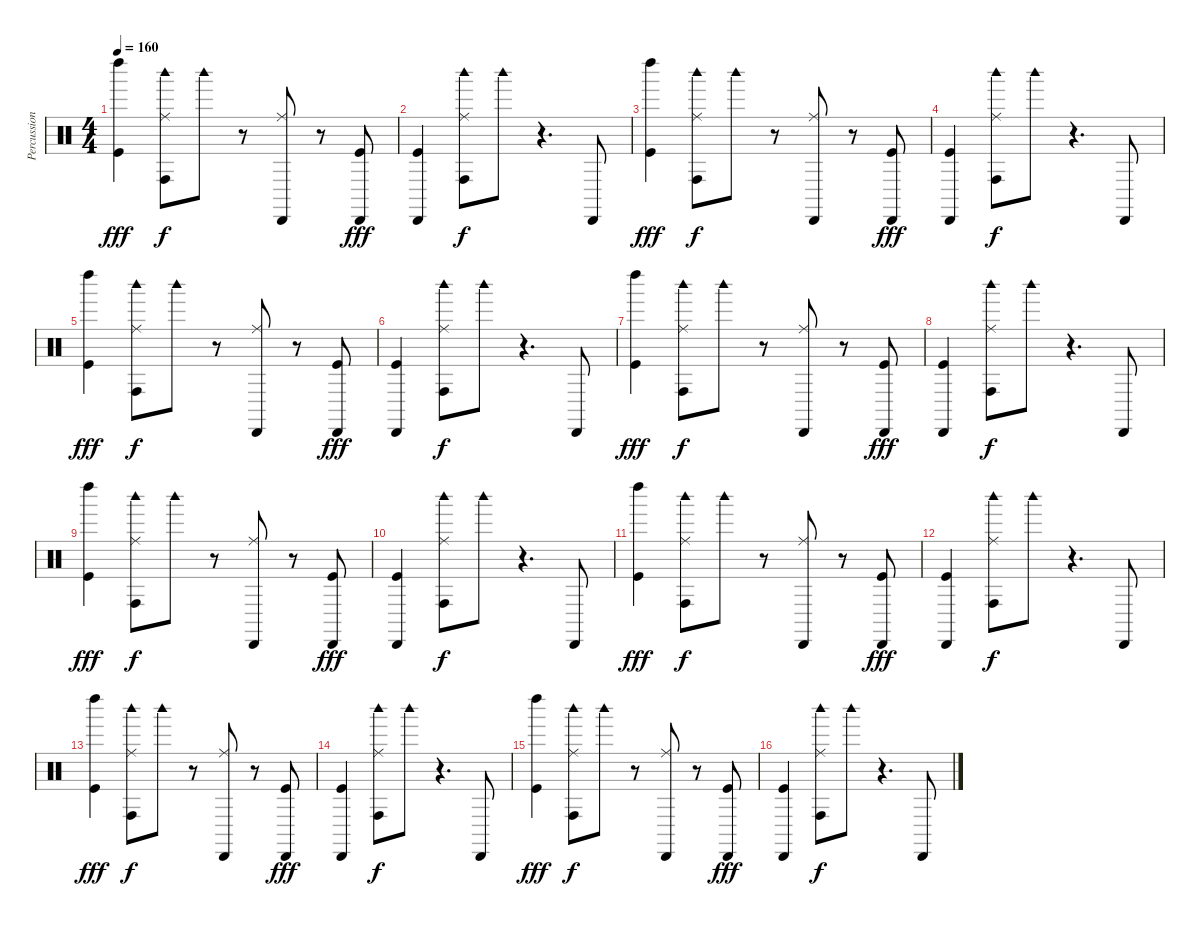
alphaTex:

\track ("Percussion" "Percussion") {instrument percussion}
\staff {score}
\articulation defaults
\ts (4 4)
\tempo 160
\clef neutral
\ks c
("Left Maraca (hit)" "Kick (hit)").4{dy fff} ("Conga high (hit)" "Ride (middle)" "Woodblock high (hit)").8{dy f} "Woodblock high (hit)".8 r.8 ("Cabasa (hit)" "Ride (middle)").8 r.8 ("Cabasa (hit)" "Kick (hit)").8{dy fff} |
("Cabasa (hit)" "Kick (hit)").4 ("Conga high (hit)" "Ride (middle)" "Woodblock high (hit)").8{dy f} "Woodblock high (hit)".8 r.4{d} "Cabasa (hit)".8 |
("Left Maraca (hit)" "Kick (hit)").4{dy fff} ("Conga high (hit)" "Ride (middle)" "Woodblock high (hit)").8{dy f} "Woodblock high (hit)".8 r.8 ("Cabasa (hit)" "Ride (middle)").8 r.8 ("Cabasa (hit)" "Kick (hit)").8{dy fff} |
("Cabasa (hit)" "Kick (hit)").4 ("Conga high (hit)" "Ride (middle)" "Woodblock high (hit)").8{dy f} "Woodblock high (hit)".8 r.4{d} "Cabasa (hit)".8 |
("Left Maraca (hit)" "Kick (hit)").4{dy fff} ("Conga high (hit)" "Ride (middle)" "Woodblock high (hit)").8{dy f} "Woodblock high (hit)".8 r.8 ("Cabasa (hit)" "Ride (middle)").8 r.8 ("Cabasa (hit)" "Kick (hit)").8{dy fff} |
("Cabasa (hit)" "Kick (hit)").4 ("Conga high (hit)" "Ride (middle)" "Woodblock high (hit)").8{dy f} "Woodblock high (hit)".8 r.4{d} "Cabasa (hit)".8 |
("Left Maraca (hit)" "Kick (hit)").4{dy fff} ("Conga high (hit)" "Ride (middle)" "Woodblock high (hit)").8{dy f} "Woodblock high (hit)".8 r.8 ("Cabasa (hit)" "Ride (middle)").8 r.8 ("Cabasa (hit)" "Kick (hit)").8{dy fff} |
("Cabasa (hit)" "Kick (hit)").4 ("Conga high (hit)" "Ride (middle)" "Woodblock high (hit)").8{dy f} "Woodblock high (hit)".8 r.4{d} "Cabasa (hit)".8 |
("Left Maraca (hit)" "Kick (hit)").4{dy fff} ("Conga high (hit)" "Ride (middle)" "Woodblock high (hit)").8{dy f} "Woodblock high (hit)".8 r.8 ("Cabasa (hit)" "Ride (middle)").8 r.8 ("Cabasa (hit)" "Kick (hit)").8{dy fff} |
("Cabasa (hit)" "Kick (hit)").4 ("Conga high (hit)" "Ride (middle)" "Woodblock high (hit)").8{dy f} "Woodblock high (hit)".8 r.4{d} "Cabasa (hit)".8 |
("Left Maraca (hit)" "Kick (hit)").4{dy fff} ("Conga high (hit)" "Ride (middle)" "Woodblock high (hit)").8{dy f} "Woodblock high (hit)".8 r.8 ("Cabasa (hit)" "Ride (middle)").8 r.8 ("Cabasa (hit)" "Kick (hit)").8{dy fff} |
("Cabasa (hit)" "Kick (hit)").4 ("Conga high (hit)" "Ride (middle)" "Woodblock high (hit)").8{dy f} "Woodblock high (hit)".8 r.4{d} "Cabasa (hit)".8 |
("Left Maraca (hit)" "Kick (hit)").4{dy fff} ("Conga high (hit)" "Ride (middle)" "Woodblock high (hit)").8{dy f} "Woodblock high (hit)".8 r.8 ("Cabasa (hit)" "Ride (middle)").8 r.8 ("Cabasa (hit)" "Kick (hit)").8{dy fff} |
("Cabasa (hit)" "Kick (hit)").4 ("Conga high (hit)" "Ride (middle)" "Woodblock high (hit)").8{dy f} "Woodblock high (hit)".8 r.4{d} "Cabasa (hit)".8 |
("Left Maraca (hit)" "Kick (hit)").4{dy fff} ("Conga high (hit)" "Ride (middle)" "Woodblock high (hit)").8{dy f} "Woodblock high (hit)".8 r.8 ("Cabasa (hit)" "Ride (middle)").8 r.8 ("Cabasa (hit)" "Kick (hit)").8{dy fff} |
("Cabasa (hit)" "Kick (hit)").4 ("Conga high (hit)" "Ride (middle)" "Woodblock high (hit)").8{dy f} "Woodblock high (hit)".8 r.4{d} "Cabasa (hit)".8
